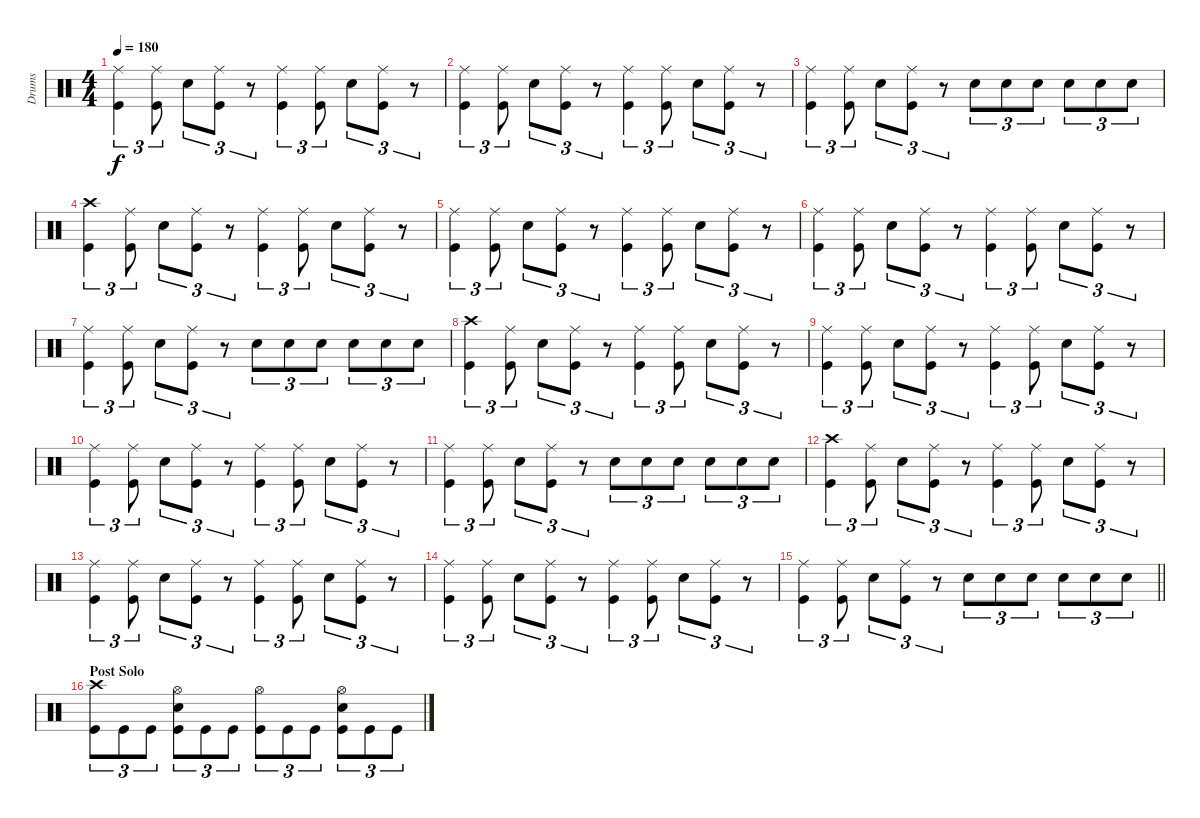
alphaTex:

\track ("Drums" "Drums") {instrument percussion}
\staff {score}
\articulation defaults
\ts (4 4)
\tempo 180
\clef neutral
\ks c
("Ride (middle)" "Kick (hit)").4{tu (3 2) dy f} ("Ride (middle)" "Kick (hit)").8{tu (3 2)} "Electric Snare (hit)".8{tu (3 2)} ("Ride (middle)" "Kick (hit)").8{tu (3 2)} r.8{tu (3 2)} ("Ride (middle)" "Kick (hit)").4{tu (3 2)} ("Ride (middle)" "Kick (hit)").8{tu (3 2)} "Electric Snare (hit)".8{tu (3 2)} ("Ride (middle)" "Kick (hit)").8{tu (3 2)} r.8{tu (3 2)} |
("Ride (middle)" "Kick (hit)").4{tu (3 2)} ("Ride (middle)" "Kick (hit)").8{tu (3 2)} "Electric Snare (hit)".8{tu (3 2)} ("Ride (middle)" "Kick (hit)").8{tu (3 2)} r.8{tu (3 2)} ("Ride (middle)" "Kick (hit)").4{tu (3 2)} ("Ride (middle)" "Kick (hit)").8{tu (3 2)} "Electric Snare (hit)".8{tu (3 2)} ("Ride (middle)" "Kick (hit)").8{tu (3 2)} r.8{tu (3 2)} |
("Ride (middle)" "Kick (hit)").4{tu (3 2)} ("Ride (middle)" "Kick (hit)").8{tu (3 2)} "Electric Snare (hit)".8{tu (3 2)} ("Ride (middle)" "Kick (hit)").8{tu (3 2)} r.8{tu (3 2)} "Electric Snare (hit)".8{tu (3 2)} "Electric Snare (hit)".8{tu (3 2)} "Electric Snare (hit)".8{tu (3 2)} "Electric Snare (hit)".8{tu (3 2)} "Electric Snare (hit)".8{tu (3 2)} "Electric Snare (hit)".8{tu (3 2)} |
("Crash high (hit)" "Kick (hit)").4{tu (3 2)} ("Ride (middle)" "Kick (hit)").8{tu (3 2)} "Electric Snare (hit)".8{tu (3 2)} ("Ride (middle)" "Kick (hit)").8{tu (3 2)} r.8{tu (3 2)} ("Ride (middle)" "Kick (hit)").4{tu (3 2)} ("Ride (middle)" "Kick (hit)").8{tu (3 2)} "Electric Snare (hit)".8{tu (3 2)} ("Ride (middle)" "Kick (hit)").8{tu (3 2)} r.8{tu (3 2)} |
("Ride (middle)" "Kick (hit)").4{tu (3 2)} ("Ride (middle)" "Kick (hit)").8{tu (3 2)} "Electric Snare (hit)".8{tu (3 2)} ("Ride (middle)" "Kick (hit)").8{tu (3 2)} r.8{tu (3 2)} ("Ride (middle)" "Kick (hit)").4{tu (3 2)} ("Ride (middle)" "Kick (hit)").8{tu (3 2)} "Electric Snare (hit)".8{tu (3 2)} ("Ride (middle)" "Kick (hit)").8{tu (3 2)} r.8{tu (3 2)} |
("Ride (middle)" "Kick (hit)").4{tu (3 2)} ("Ride (middle)" "Kick (hit)").8{tu (3 2)} "Electric Snare (hit)".8{tu (3 2)} ("Ride (middle)" "Kick (hit)").8{tu (3 2)} r.8{tu (3 2)} ("Ride (middle)" "Kick (hit)").4{tu (3 2)} ("Ride (middle)" "Kick (hit)").8{tu (3 2)} "Electric Snare (hit)".8{tu (3 2)} ("Ride (middle)" "Kick (hit)").8{tu (3 2)} r.8{tu (3 2)} |
("Ride (middle)" "Kick (hit)").4{tu (3 2)} ("Ride (middle)" "Kick (hit)").8{tu (3 2)} "Electric Snare (hit)".8{tu (3 2)} ("Ride (middle)" "Kick (hit)").8{tu (3 2)} r.8{tu (3 2)} "Electric Snare (hit)".8{tu (3 2)} "Electric Snare (hit)".8{tu (3 2)} "Electric Snare (hit)".8{tu (3 2)} "Electric Snare (hit)".8{tu (3 2)} "Electric Snare (hit)".8{tu (3 2)} "Electric Snare (hit)".8{tu (3 2)} |
("Crash high (hit)" "Kick (hit)").4{tu (3 2)} ("Ride (middle)" "Kick (hit)").8{tu (3 2)} "Electric Snare (hit)".8{tu (3 2)} ("Ride (middle)" "Kick (hit)").8{tu (3 2)} r.8{tu (3 2)} ("Ride (middle)" "Kick (hit)").4{tu (3 2)} ("Ride (middle)" "Kick (hit)").8{tu (3 2)} "Electric Snare (hit)".8{tu (3 2)} ("Ride (middle)" "Kick (hit)").8{tu (3 2)} r.8{tu (3 2)} |
("Ride (middle)" "Kick (hit)").4{tu (3 2)} ("Ride (middle)" "Kick (hit)").8{tu (3 2)} "Electric Snare (hit)".8{tu (3 2)} ("Ride (middle)" "Kick (hit)").8{tu (3 2)} r.8{tu (3 2)} ("Ride (middle)" "Kick (hit)").4{tu (3 2)} ("Ride (middle)" "Kick (hit)").8{tu (3 2)} "Electric Snare (hit)".8{tu (3 2)} ("Ride (middle)" "Kick (hit)").8{tu (3 2)} r.8{tu (3 2)} |
("Ride (middle)" "Kick (hit)").4{tu (3 2)} ("Ride (middle)" "Kick (hit)").8{tu (3 2)} "Electric Snare (hit)".8{tu (3 2)} ("Ride (middle)" "Kick (hit)").8{tu (3 2)} r.8{tu (3 2)} ("Ride (middle)" "Kick (hit)").4{tu (3 2)} ("Ride (middle)" "Kick (hit)").8{tu (3 2)} "Electric Snare (hit)".8{tu (3 2)} ("Ride (middle)" "Kick (hit)").8{tu (3 2)} r.8{tu (3 2)} |
("Ride (middle)" "Kick (hit)").4{tu (3 2)} ("Ride (middle)" "Kick (hit)").8{tu (3 2)} "Electric Snare (hit)".8{tu (3 2)} ("Ride (middle)" "Kick (hit)").8{tu (3 2)} r.8{tu (3 2)} "Electric Snare (hit)".8{tu (3 2)} "Electric Snare (hit)".8{tu (3 2)} "Electric Snare (hit)".8{tu (3 2)} "Electric Snare (hit)".8{tu (3 2)} "Electric Snare (hit)".8{tu (3 2)} "Electric Snare (hit)".8{tu (3 2)} |
("Crash high (hit)" "Kick (hit)").4{tu (3 2)} ("Ride (middle)" "Kick (hit)").8{tu (3 2)} "Electric Snare (hit)".8{tu (3 2)} ("Ride (middle)" "Kick (hit)").8{tu (3 2)} r.8{tu (3 2)} ("Ride (middle)" "Kick (hit)").4{tu (3 2)} ("Ride (middle)" "Kick (hit)").8{tu (3 2)} "Electric Snare (hit)".8{tu (3 2)} ("Ride (middle)" "Kick (hit)").8{tu (3 2)} r.8{tu (3 2)} |
("Ride (middle)" "Kick (hit)").4{tu (3 2)} ("Ride (middle)" "Kick (hit)").8{tu (3 2)} "Electric Snare (hit)".8{tu (3 2)} ("Ride (middle)" "Kick (hit)").8{tu (3 2)} r.8{tu (3 2)} ("Ride (middle)" "Kick (hit)").4{tu (3 2)} ("Ride (middle)" "Kick (hit)").8{tu (3 2)} "Electric Snare (hit)".8{tu (3 2)} ("Ride (middle)" "Kick (hit)").8{tu (3 2)} r.8{tu (3 2)} |
("Ride (middle)" "Kick (hit)").4{tu (3 2)} ("Ride (middle)" "Kick (hit)").8{tu (3 2)} "Electric Snare (hit)".8{tu (3 2)} ("Ride (middle)" "Kick (hit)").8{tu (3 2)} r.8{tu (3 2)} ("Ride (middle)" "Kick (hit)").4{tu (3 2)} ("Ride (middle)" "Kick (hit)").8{tu (3 2)} "Electric Snare (hit)".8{tu (3 2)} ("Ride (middle)" "Kick (hit)").8{tu (3 2)} r.8{tu (3 2)} |
\barLineRight lightlight
("Ride (middle)" "Kick (hit)").4{tu (3 2)} ("Ride (middle)" "Kick (hit)").8{tu (3 2)} "Electric Snare (hit)".8{tu (3 2)} ("Ride (middle)" "Kick (hit)").8{tu (3 2)} r.8{tu (3 2)} "Electric Snare (hit)".8{tu (3 2)} "Electric Snare (hit)".8{tu (3 2)} "Electric Snare (hit)".8{tu (3 2)} "Electric Snare (hit)".8{tu (3 2)} "Electric Snare (hit)".8{tu (3 2)} "Electric Snare (hit)".8{tu (3 2)} |
\section ("" "Post Solo")
("Crash high (hit)" "Kick (hit)").8{tu (3 2)} "Kick (hit)".8{tu (3 2)} "Kick (hit)".8{tu (3 2)} ("Hi-Hat (open)" "Electric Snare (hit)" "Kick (hit)").8{tu (3 2)} "Kick (hit)".8{tu (3 2)} "Kick (hit)".8{tu (3 2)} ("Hi-Hat (open)" "Kick (hit)").8{tu (3 2)} "Kick (hit)".8{tu (3 2)} "Kick (hit)".8{tu (3 2)} ("Hi-Hat (open)" "Electric Snare (hit)" "Kick (hit)").8{tu (3 2)} "Kick (hit)".8{tu (3 2)} "Kick (hit)".8{tu (3 2)}
